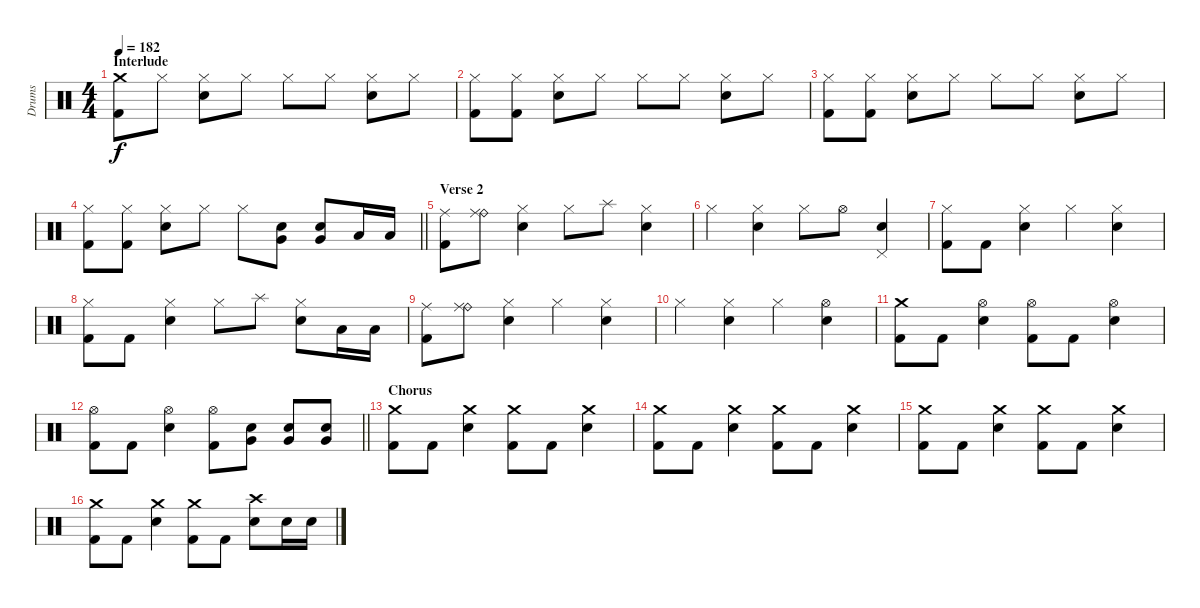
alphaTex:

\track ("Drums" "Drums") {instrument percussion}
\staff {score}
\articulation defaults
\ts (4 4)
\section ("" "Interlude")
\tempo 182
\clef neutral
\ks c
("Crash medium (hit)" "Kick (hit) 2").8{dy f} "Hi-Hat (closed)".8 ("Hi-Hat (closed)" "Electric Snare (hit)").8 "Hi-Hat (closed)".8 "Hi-Hat (closed)".8 "Hi-Hat (closed)".8 ("Hi-Hat (closed)" "Electric Snare (hit)").8 "Hi-Hat (closed)".8 |
("Hi-Hat (closed)" "Kick (hit) 2").8 ("Hi-Hat (closed)" "Kick (hit) 2").8 ("Hi-Hat (closed)" "Electric Snare (hit)").8 "Hi-Hat (closed)".8 "Hi-Hat (closed)".8 "Hi-Hat (closed)".8 ("Hi-Hat (closed)" "Electric Snare (hit)").8 "Hi-Hat (closed)".8 |
("Hi-Hat (closed)" "Kick (hit) 2").8 ("Hi-Hat (closed)" "Kick (hit) 2").8 ("Hi-Hat (closed)" "Electric Snare (hit)").8 "Hi-Hat (closed)".8 "Hi-Hat (closed)".8 "Hi-Hat (closed)".8 ("Hi-Hat (closed)" "Electric Snare (hit)").8 "Hi-Hat (closed)".8 |
\barLineRight lightlight
("Hi-Hat (closed)" "Kick (hit) 2").8 ("Hi-Hat (closed)" "Kick (hit) 2").8 ("Hi-Hat (closed)" "Electric Snare (hit)").8 "Hi-Hat (closed)".8 "Hi-Hat (closed)".8 ("Very Low Tom (hit)" "Electric Snare (hit)").8 ("Very Low Tom (hit)" "Electric Snare (hit)").8 "Low Floor Tom (hit)".16 "Low Floor Tom (hit)".16 |
\section ("" "Verse 2")
("Ride (middle)" "Kick (hit) 2").8 ("Ride (bell)" "Ride (middle)").8 ("Hi-Hat (closed)" "Electric Snare (hit)").4 "Hi-Hat (closed)".8 "Splash (hit)".8 ("Hi-Hat (closed)" "Electric Snare (hit)").4 |
"Hi-Hat (closed)".4 ("Hi-Hat (closed)" "Electric Snare (hit)").4 "Hi-Hat (closed)".8 "Hi-Hat (open)".8 ("Pedal Hi-Hat (hit)" "Electric Snare (hit)").4 |
("Hi-Hat (closed)" "Kick (hit) 2").8 "Kick (hit) 2".8 ("Hi-Hat (closed)" "Electric Snare (hit)").4 "Hi-Hat (closed)".4 ("Hi-Hat (closed)" "Electric Snare (hit)").4 |
("Hi-Hat (closed)" "Kick (hit) 2").8 "Kick (hit) 2".8 ("Hi-Hat (closed)" "Electric Snare (hit)").4 "Hi-Hat (closed)".8 "Splash (hit)".8 ("Hi-Hat (closed)" "Electric Snare (hit)").8 "Low Floor Tom (hit)".16 "Low Floor Tom (hit)".16 |
("Ride (middle)" "Kick (hit) 2").8 ("Ride (bell)" "Ride (middle)").8 ("Hi-Hat (closed)" "Electric Snare (hit)").4 "Hi-Hat (closed)".4 ("Hi-Hat (closed)" "Electric Snare (hit)").4 |
"Hi-Hat (closed)".4 ("Hi-Hat (closed)" "Electric Snare (hit)").4 "Hi-Hat (closed)".4 ("Hi-Hat (open)" "Electric Snare (hit)").4 |
("Crash medium (hit)" "Kick (hit) 2").8 "Kick (hit) 2".8 ("Hi-Hat (open)" "Electric Snare (hit)").4 ("Hi-Hat (open)" "Kick (hit) 2").8 "Kick (hit) 2".8 ("Hi-Hat (open)" "Electric Snare (hit)").4 |
\barLineRight lightlight
("Hi-Hat (open)" "Kick (hit) 2").8 "Kick (hit) 2".8 ("Hi-Hat (open)" "Electric Snare (hit)").4 ("Hi-Hat (open)" "Kick (hit) 2").8 ("Very Low Tom (hit)" "Electric Snare (hit)").8 ("Very Low Tom (hit)" "Electric Snare (hit)").8 ("Very Low Tom (hit)" "Electric Snare (hit)").8 |
\section ("" "Chorus")
("Crash medium (hit)" "Kick (hit) 2").8 "Kick (hit) 2".8 ("Crash medium (hit)" "Electric Snare (hit)").4 ("Crash medium (hit)" "Kick (hit) 2").8 "Kick (hit) 2".8 ("Crash medium (hit)" "Electric Snare (hit)").4 |
("Crash medium (hit)" "Kick (hit) 2").8 "Kick (hit) 2".8 ("Crash medium (hit)" "Electric Snare (hit)").4 ("Crash medium (hit)" "Kick (hit) 2").8 "Kick (hit) 2".8 ("Crash medium (hit)" "Electric Snare (hit)").4 |
("Crash medium (hit)" "Kick (hit) 2").8 "Kick (hit) 2".8 ("Crash medium (hit)" "Electric Snare (hit)").4 ("Crash medium (hit)" "Kick (hit) 2").8 "Kick (hit) 2".8 ("Crash medium (hit)" "Electric Snare (hit)").4 |
("Crash medium (hit)" "Kick (hit) 2").8 "Kick (hit) 2".8 ("Crash medium (hit)" "Electric Snare (hit)").4 ("Crash medium (hit)" "Kick (hit) 2").8 "Kick (hit) 2".8 ("Crash high (hit)" "Electric Snare (hit)").8 "Electric Snare (hit)".16 "Electric Snare (hit)".16
